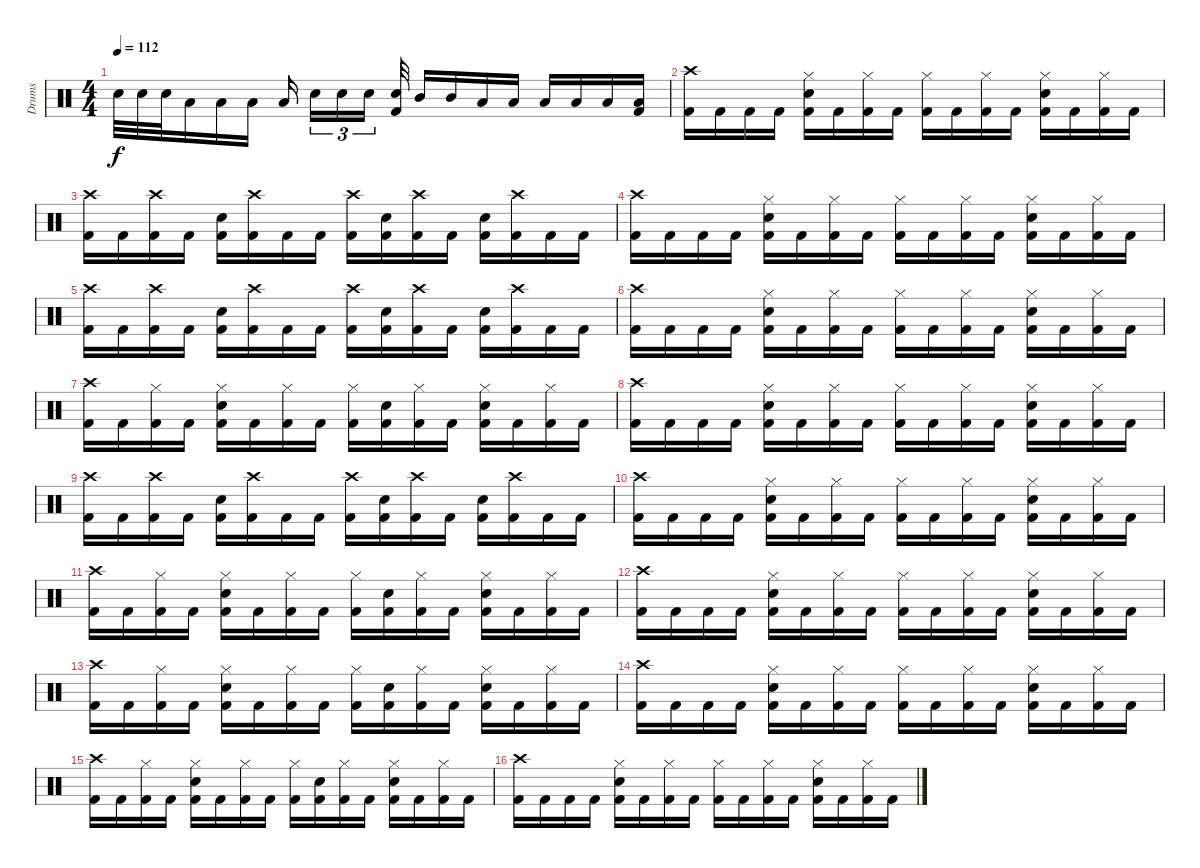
\track ("Drums" "Drums") {instrument percussion}
\staff {score}
\articulation defaults
\ts (4 4)
\tempo 112
\clef neutral
\ks c "Snare (hit) 2".32{dy f} "Snare (hit) 2".32 "Snare (hit) 2".32 "Low Tom (hit)".16 "Low Tom (hit)".16 "Low Tom (hit)".16 "Low Floor Tom (hit)".16 "Snare (hit) 2".16{tu (3 2)} "Snare (hit) 2".16{tu (3 2)} "Snare (hit) 2".16{tu (3 2)}
("Snare (hit) 2" "Kick (hit) 2").32 "Mid Tom (hit)".16 "Mid Tom (hit)".16 "Low Tom (hit)".16 "Low Tom (hit)".16 "Low Tom (hit)".16 "Low Tom (hit)".16 "Low Floor Tom (hit)".16 ("Low Floor Tom (hit)" "Kick (hit) 2").16 |
("Crash high (hit)" "Kick (hit) 2").16 "Kick (hit) 2".16 "Kick (hit) 2".16 "Kick (hit) 2".16 ("Hi-Hat (closed)" "Snare (hit) 2" "Kick (hit) 2").16 "Kick (hit) 2".16 ("Hi-Hat (closed)" "Kick (hit) 2").16 "Kick (hit) 2".16 ("Hi-Hat (closed)" "Kick (hit) 2").16 "Kick (hit) 2".16 ("Hi-Hat (closed)" "Kick (hit) 2").16 "Kick (hit) 2".16 ("Hi-Hat (closed)" "Snare (hit) 2" "Kick (hit) 2").16 "Kick (hit) 2".16 ("Hi-Hat (closed)" "Kick (hit) 2").16 "Kick (hit) 2".16 |
("Crash high (hit)" "Kick (hit) 2").16 "Kick (hit) 2".16 ("Crash high (hit)" "Kick (hit) 2").16 "Kick (hit) 2".16 ("Snare (hit) 2" "Kick (hit) 2").16 ("Crash high (hit)" "Kick (hit) 2").16 "Kick (hit) 2".16 "Kick (hit) 2".16 ("Crash high (hit)" "Kick (hit) 2").16 ("Snare (hit) 2" "Kick (hit) 2").16 ("Crash high (hit)" "Kick (hit) 2").16 "Kick (hit) 2".16 ("Snare (hit) 2" "Kick (hit) 2").16 ("Crash high (hit)" "Kick (hit) 2").16 "Kick (hit) 2".16 "Kick (hit) 2".16 |
("Crash high (hit)" "Kick (hit) 2").16 "Kick (hit) 2".16 "Kick (hit) 2".16 "Kick (hit) 2".16 ("Hi-Hat (closed)" "Snare (hit) 2" "Kick (hit) 2").16 "Kick (hit) 2".16 ("Hi-Hat (closed)" "Kick (hit) 2").16 "Kick (hit) 2".16 ("Hi-Hat (closed)" "Kick (hit) 2").16 "Kick (hit) 2".16 ("Hi-Hat (closed)" "Kick (hit) 2").16 "Kick (hit) 2".16 ("Hi-Hat (closed)" "Snare (hit) 2" "Kick (hit) 2").16 "Kick (hit) 2".16 ("Hi-Hat (closed)" "Kick (hit) 2").16 "Kick (hit) 2".16 |
("Crash high (hit)" "Kick (hit) 2").16 "Kick (hit) 2".16 ("Crash high (hit)" "Kick (hit) 2").16 "Kick (hit) 2".16 ("Snare (hit) 2" "Kick (hit) 2").16 ("Crash high (hit)" "Kick (hit) 2").16 "Kick (hit) 2".16 "Kick (hit) 2".16 ("Crash high (hit)" "Kick (hit) 2").16 ("Snare (hit) 2" "Kick (hit) 2").16 ("Crash high (hit)" "Kick (hit) 2").16 "Kick (hit) 2".16 ("Snare (hit) 2" "Kick (hit) 2").16 ("Crash high (hit)" "Kick (hit) 2").16 "Kick (hit) 2".16 "Kick (hit) 2".16 |
("Crash high (hit)" "Kick (hit) 2").16 "Kick (hit) 2".16 "Kick (hit) 2".16 "Kick (hit) 2".16 ("Hi-Hat (closed)" "Snare (hit) 2" "Kick (hit) 2").16 "Kick (hit) 2".16 ("Hi-Hat (closed)" "Kick (hit) 2").16 "Kick (hit) 2".16 ("Hi-Hat (closed)" "Kick (hit) 2").16 "Kick (hit) 2".16 ("Hi-Hat (closed)" "Kick (hit) 2").16 "Kick (hit) 2".16 ("Hi-Hat (closed)" "Snare (hit) 2" "Kick (hit) 2").16 "Kick (hit) 2".16 ("Hi-Hat (closed)" "Kick (hit) 2").16 "Kick (hit) 2".16 |
("Crash high (hit)" "Kick (hit) 2").16 "Kick (hit) 2".16 ("Hi-Hat (closed)" "Kick (hit) 2").16 "Kick (hit) 2".16 ("Hi-Hat (closed)" "Snare (hit) 2" "Kick (hit) 2").16 "Kick (hit) 2".16 ("Hi-Hat (closed)" "Kick (hit) 2").16 "Kick (hit) 2".16 ("Hi-Hat (closed)" "Kick (hit) 2").16 ("Snare (hit) 2" "Kick (hit) 2").16 ("Hi-Hat (closed)" "Kick (hit) 2").16 "Kick (hit) 2".16 ("Hi-Hat (closed)" "Snare (hit) 2" "Kick (hit) 2").16 "Kick (hit) 2".16 ("Hi-Hat (closed)" "Kick (hit) 2").16 "Kick (hit) 2".16 |
("Crash high (hit)" "Kick (hit) 2").16 "Kick (hit) 2".16 "Kick (hit) 2".16 "Kick (hit) 2".16 ("Hi-Hat (closed)" "Snare (hit) 2" "Kick (hit) 2").16 "Kick (hit) 2".16 ("Hi-Hat (closed)" "Kick (hit) 2").16 "Kick (hit) 2".16 ("Hi-Hat (closed)" "Kick (hit) 2").16 "Kick (hit) 2".16 ("Hi-Hat (closed)" "Kick (hit) 2").16 "Kick (hit) 2".16 ("Hi-Hat (closed)" "Snare (hit) 2" "Kick (hit) 2").16 "Kick (hit) 2".16 ("Hi-Hat (closed)" "Kick (hit) 2").16 "Kick (hit) 2".16 |
("Crash high (hit)" "Kick (hit) 2").16 "Kick (hit) 2".16 ("Crash high (hit)" "Kick (hit) 2").16 "Kick (hit) 2".16 ("Snare (hit) 2" "Kick (hit) 2").16 ("Crash high (hit)" "Kick (hit) 2").16 "Kick (hit) 2".16 "Kick (hit) 2".16 ("Crash high (hit)" "Kick (hit) 2").16 ("Snare (hit) 2" "Kick (hit) 2").16 ("Crash high (hit)" "Kick (hit) 2").16 "Kick (hit) 2".16 ("Snare (hit) 2" "Kick (hit) 2").16 ("Crash high (hit)" "Kick (hit) 2").16 "Kick (hit) 2".16 "Kick (hit) 2".16 |
("Crash high (hit)" "Kick (hit) 2").16 "Kick (hit) 2".16 "Kick (hit) 2".16 "Kick (hit) 2".16 ("Hi-Hat (closed)" "Snare (hit) 2" "Kick (hit) 2").16 "Kick (hit) 2".16 ("Hi-Hat (closed)" "Kick (hit) 2").16 "Kick (hit) 2".16 ("Hi-Hat (closed)" "Kick (hit) 2").16 "Kick (hit) 2".16 ("Hi-Hat (closed)" "Kick (hit) 2").16 "Kick (hit) 2".16 ("Hi-Hat (closed)" "Snare (hit) 2" "Kick (hit) 2").16 "Kick (hit) 2".16 ("Hi-Hat (closed)" "Kick (hit) 2").16 "Kick (hit) 2".16 |
("Crash high (hit)" "Kick (hit) 2").16 "Kick (hit) 2".16 ("Hi-Hat (closed)" "Kick (hit) 2").16 "Kick (hit) 2".16 ("Hi-Hat (closed)" "Snare (hit) 2" "Kick (hit) 2").16 "Kick (hit) 2".16 ("Hi-Hat (closed)" "Kick (hit) 2").16 "Kick (hit) 2".16 ("Hi-Hat (closed)" "Kick (hit) 2").16 ("Snare (hit) 2" "Kick (hit) 2").16 ("Hi-Hat (closed)" "Kick (hit) 2").16 "Kick (hit) 2".16 ("Hi-Hat (closed)" "Snare (hit) 2" "Kick (hit) 2").16 "Kick (hit) 2".16 ("Hi-Hat (closed)" "Kick (hit) 2").16 "Kick (hit) 2".16 |
("Crash high (hit)" "Kick (hit) 2").16 "Kick (hit) 2".16 "Kick (hit) 2".16 "Kick (hit) 2".16 ("Hi-Hat (closed)" "Snare (hit) 2" "Kick (hit) 2").16 "Kick (hit) 2".16 ("Hi-Hat (closed)" "Kick (hit) 2").16 "Kick (hit) 2".16 ("Hi-Hat (closed)" "Kick (hit) 2").16 "Kick (hit) 2".16 ("Hi-Hat (closed)" "Kick (hit) 2").16 "Kick (hit) 2".16 ("Hi-Hat (closed)" "Snare (hit) 2" "Kick (hit) 2").16 "Kick (hit) 2".16 ("Hi-Hat (closed)" "Kick (hit) 2").16 "Kick (hit) 2".16 |
("Crash high (hit)" "Kick (hit) 2").16 "Kick (hit) 2".16 ("Hi-Hat (closed)" "Kick (hit) 2").16 "Kick (hit) 2".16 ("Hi-Hat (closed)" "Snare (hit) 2" "Kick (hit) 2").16 "Kick (hit) 2".16 ("Hi-Hat (closed)" "Kick (hit) 2").16 "Kick (hit) 2".16 ("Hi-Hat (closed)" "Kick (hit) 2").16 ("Snare (hit) 2" "Kick (hit) 2").16 ("Hi-Hat (closed)" "Kick (hit) 2").16 "Kick (hit) 2".16 ("Hi-Hat (closed)" "Snare (hit) 2" "Kick (hit) 2").16 "Kick (hit) 2".16 ("Hi-Hat (closed)" "Kick (hit) 2").16 "Kick (hit) 2".16 |
("Crash high (hit)" "Kick (hit) 2").16 "Kick (hit) 2".16 "Kick (hit) 2".16 "Kick (hit) 2".16 ("Hi-Hat (closed)" "Snare (hit) 2" "Kick (hit) 2").16 "Kick (hit) 2".16 ("Hi-Hat (closed)" "Kick (hit) 2").16 "Kick (hit) 2".16 ("Hi-Hat (closed)" "Kick (hit) 2").16 "Kick (hit) 2".16 ("Hi-Hat (closed)" "Kick (hit) 2").16 "Kick (hit) 2".16 ("Hi-Hat (closed)" "Snare (hit) 2" "Kick (hit) 2").16 "Kick (hit) 2".16 ("Hi-Hat (closed)" "Kick (hit) 2").16 "Kick (hit) 2".16 |
("Crash high (hit)" "Kick (hit) 2").16 "Kick (hit) 2".16 ("Hi-Hat (closed)" "Kick (hit) 2").16 "Kick (hit) 2".16 ("Hi-Hat (closed)" "Snare (hit) 2" "Kick (hit) 2").16 "Kick (hit) 2".16 ("Hi-Hat (closed)" "Kick (hit) 2").16 "Kick (hit) 2".16 ("Hi-Hat (closed)" "Kick (hit) 2").16 ("Snare (hit) 2" "Kick (hit) 2").16 ("Hi-Hat (closed)" "Kick (hit) 2").16 "Kick (hit) 2".16 ("Hi-Hat (closed)" "Snare (hit) 2" "Kick (hit) 2").16 "Kick (hit) 2".16 ("Hi-Hat (closed)" "Kick (hit) 2").16 "Kick (hit) 2".16 |
("Crash high (hit)" "Kick (hit) 2").16 "Kick (hit) 2".16 "Kick (hit) 2".16 "Kick (hit) 2".16 ("Hi-Hat (closed)" "Snare (hit) 2" "Kick (hit) 2").16 "Kick (hit) 2".16 ("Hi-Hat (closed)" "Kick (hit) 2").16 "Kick (hit) 2".16 ("Hi-Hat (closed)" "Kick (hit) 2").16 "Kick (hit) 2".16 ("Hi-Hat (closed)" "Kick (hit) 2").16 "Kick (hit) 2".16 ("Hi-Hat (closed)" "Snare (hit) 2" "Kick (hit) 2").16 "Kick (hit) 2".16 ("Hi-Hat (closed)" "Kick (hit) 2").16 "Kick (hit) 2".16
